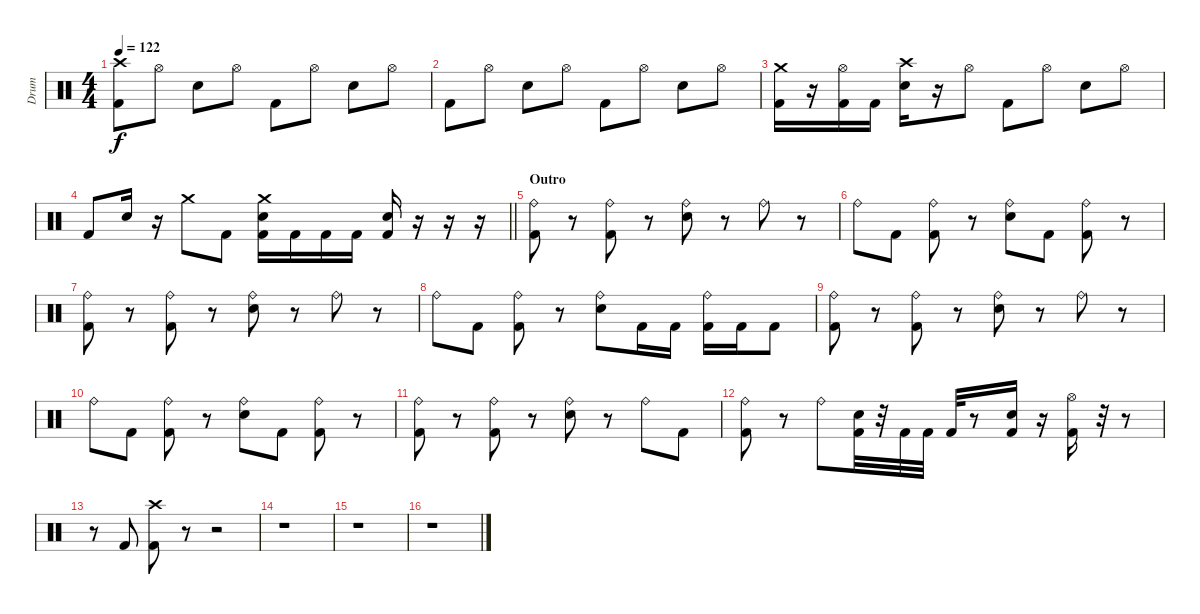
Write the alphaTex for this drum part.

\track ("Drum" "Drum") {instrument percussion}
\staff {score}
\articulation defaults
\ts (4 4)
\tempo 122
\clef neutral
\ks c
("Kick (hit) 2" "Crash high (hit)").8{dy f} "Hi-Hat (open)".8 "Snare (hit) 2".8 "Hi-Hat (open)".8 "Kick (hit) 2".8 "Hi-Hat (open)".8 "Snare (hit) 2".8 "Hi-Hat (open)".8 |
"Kick (hit) 2".8 "Hi-Hat (open)".8 "Snare (hit) 2".8 "Hi-Hat (open)".8 "Kick (hit) 2".8 "Hi-Hat (open)".8 "Snare (hit) 2".8 "Hi-Hat (open)".8 |
("Kick (hit) 2" "Crash medium (hit)").16 r.16 ("Kick (hit) 2" "Hi-Hat (open)").16 "Kick (hit) 2".16 ("Snare (hit) 2" "Crash high (hit)").16 r.16 "Hi-Hat (open)".8 "Kick (hit) 2".8 "Hi-Hat (open)".8 "Snare (hit) 2".8 "Hi-Hat (open)".8 |
\barLineRight lightlight "Kick (hit) 2".8 "Snare (hit) 2".16
r.16 "Crash medium (hit)".8 "Kick (hit) 2".8 ("Snare (hit) 2" "Crash medium (hit)" "Kick (hit) 2").16 "Kick (hit) 2".16 "Kick (hit) 2".16 "Kick (hit) 2".16 ("Snare (hit) 2" "Kick (hit) 2").16 r.16 r.16 r.16 |
\section ("" "Outro")
("Ride (bell)" "Kick (hit) 2").8 r.8 ("Ride (bell)" "Kick (hit) 2").8 r.8 ("Ride (bell)" "Snare (hit) 2").8 r.8 "Ride (bell)".8 r.8 |
"Ride (bell)".8 "Kick (hit) 2".8 ("Ride (bell)" "Kick (hit) 2").8 r.8 ("Ride (bell)" "Snare (hit) 2").8 "Kick (hit) 2".8 ("Ride (bell)" "Kick (hit) 2").8 r.8 |
("Ride (bell)" "Kick (hit) 2").8 r.8 ("Ride (bell)" "Kick (hit) 2").8 r.8 ("Ride (bell)" "Snare (hit) 2").8 r.8 "Ride (bell)".8 r.8 |
"Ride (bell)".8 "Kick (hit) 2".8 ("Ride (bell)" "Kick (hit) 2").8 r.8 ("Ride (bell)" "Snare (hit) 2").8 "Kick (hit) 2".16 "Kick (hit) 2".16 ("Ride (bell)" "Kick (hit) 2").16 "Kick (hit) 2".16 "Kick (hit) 2".8 |
("Ride (bell)" "Kick (hit) 2").8 r.8 ("Ride (bell)" "Kick (hit) 2").8 r.8 ("Ride (bell)" "Snare (hit) 2").8 r.8 "Ride (bell)".8 r.8 |
"Ride (bell)".8 "Kick (hit) 2".8 ("Ride (bell)" "Kick (hit) 2").8 r.8 ("Ride (bell)" "Snare (hit) 2").8 "Kick (hit) 2".8 ("Ride (bell)" "Kick (hit) 2").8 r.8 |
("Ride (bell)" "Kick (hit) 2").8 r.8 ("Ride (bell)" "Kick (hit) 2").8 r.8 ("Ride (bell)" "Snare (hit) 2").8 r.8 "Ride (bell)".8 "Kick (hit) 2".8 |
("Ride (bell)" "Kick (hit) 2").8 r.8 "Ride (bell)".8 ("Snare (hit) 2" "Kick (hit) 2").32 r.32 "Kick (hit) 2".32 "Kick (hit) 2".32 "Kick (hit) 2".32 r.8 ("Snare (hit) 2" "Kick (hit) 2").16 r.16 ("Hi-Hat (open)" "Kick (hit) 2").16 r.32 r.8 |
r.8 "Kick (hit) 2".8 ("Crash high (hit)" "Kick (hit) 2").8 r.8 r.2 |
r.1 |
r.1 |
r.1
